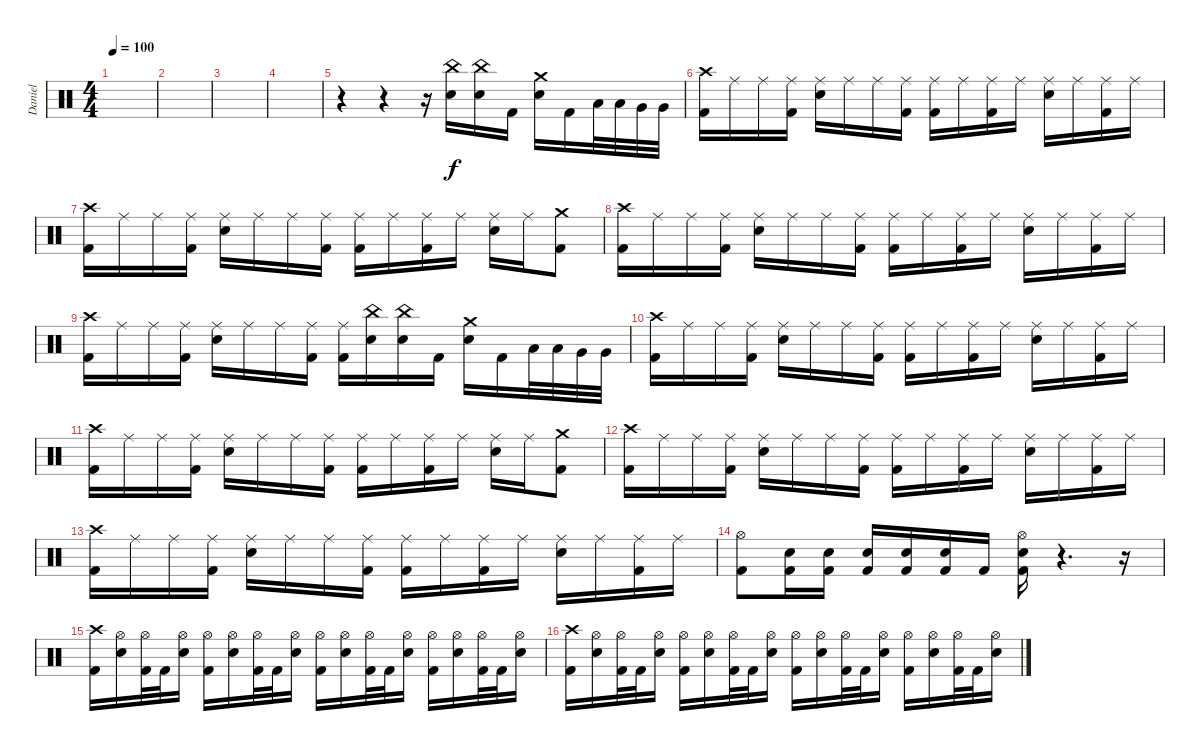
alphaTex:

\track ("Daniel" "Daniel") {instrument percussion}
\staff {score}
\articulation defaults
\ts (4 4)
\tempo 100
\clef neutral
\ks c
|
|
|
|
r.4 r.4 r.16 ("China (hit)" "Snare (hit) 2").16 ("China (hit)" "Snare (hit) 2").16 "Kick (hit) 2".16 ("Crash medium (hit)" "Snare (hit) 2").16 "Kick (hit) 2".16 "Low Tom (hit)".32 "Low Tom (hit)".32 "Very Low Tom (hit)".32 "Very Low Tom (hit)".32 |
("Crash high (hit)" "Kick (hit) 2").16 "Ride (middle)".16 "Ride (middle)".16 ("Ride (middle)" "Kick (hit) 2").16 ("Ride (middle)" "Snare (hit) 2").16 "Ride (middle)".16 "Ride (middle)".16 ("Ride (middle)" "Kick (hit) 2").16 ("Ride (middle)" "Kick (hit) 2").16 "Ride (middle)".16 ("Ride (middle)" "Kick (hit) 2").16 "Ride (middle)".16 ("Ride (middle)" "Snare (hit) 2").16 "Ride (middle)".16 ("Ride (middle)" "Kick (hit) 2").16 "Ride (middle)".16 |
("Crash high (hit)" "Kick (hit) 2").16 "Ride (middle)".16 "Ride (middle)".16 ("Ride (middle)" "Kick (hit) 2").16 ("Ride (middle)" "Snare (hit) 2").16 "Ride (middle)".16 "Ride (middle)".16 ("Ride (middle)" "Kick (hit) 2").16 ("Ride (middle)" "Kick (hit) 2").16 "Ride (middle)".16 ("Ride (middle)" "Kick (hit) 2").16 "Ride (middle)".16 ("Ride (middle)" "Snare (hit) 2").16 "Ride (middle)".16 ("Crash medium (hit)" "Kick (hit) 2").8 |
("Crash high (hit)" "Kick (hit) 2").16 "Ride (middle)".16 "Ride (middle)".16 ("Ride (middle)" "Kick (hit) 2").16 ("Ride (middle)" "Snare (hit) 2").16 "Ride (middle)".16 "Ride (middle)".16 ("Ride (middle)" "Kick (hit) 2").16 ("Ride (middle)" "Kick (hit) 2").16 "Ride (middle)".16 ("Ride (middle)" "Kick (hit) 2").16 "Ride (middle)".16 ("Ride (middle)" "Snare (hit) 2").16 "Ride (middle)".16 ("Ride (middle)" "Kick (hit) 2").16 "Ride (middle)".16 |
("Crash high (hit)" "Kick (hit) 2").16 "Ride (middle)".16 "Ride (middle)".16 ("Ride (middle)" "Kick (hit) 2").16 ("Ride (middle)" "Snare (hit) 2").16 "Ride (middle)".16 "Ride (middle)".16 ("Ride (middle)" "Kick (hit) 2").16 ("Ride (middle)" "Kick (hit) 2").16 ("China (hit)" "Snare (hit) 2").16 ("China (hit)" "Snare (hit) 2").16 "Kick (hit) 2".16 ("Crash medium (hit)" "Snare (hit) 2").16 "Kick (hit) 2".16 "Low Tom (hit)".32 "Low Tom (hit)".32 "Very Low Tom (hit)".32 "Very Low Tom (hit)".32 |
("Crash high (hit)" "Kick (hit) 2").16 "Ride (middle)".16 "Ride (middle)".16 ("Ride (middle)" "Kick (hit) 2").16 ("Ride (middle)" "Snare (hit) 2").16 "Ride (middle)".16 "Ride (middle)".16 ("Ride (middle)" "Kick (hit) 2").16 ("Ride (middle)" "Kick (hit) 2").16 "Ride (middle)".16 ("Ride (middle)" "Kick (hit) 2").16 "Ride (middle)".16 ("Ride (middle)" "Snare (hit) 2").16 "Ride (middle)".16 ("Ride (middle)" "Kick (hit) 2").16 "Ride (middle)".16 |
("Crash high (hit)" "Kick (hit) 2").16 "Ride (middle)".16 "Ride (middle)".16 ("Ride (middle)" "Kick (hit) 2").16 ("Ride (middle)" "Snare (hit) 2").16 "Ride (middle)".16 "Ride (middle)".16 ("Ride (middle)" "Kick (hit) 2").16 ("Ride (middle)" "Kick (hit) 2").16 "Ride (middle)".16 ("Ride (middle)" "Kick (hit) 2").16 "Ride (middle)".16 ("Ride (middle)" "Snare (hit) 2").16 "Ride (middle)".16 ("Crash medium (hit)" "Kick (hit) 2").8 |
("Crash high (hit)" "Kick (hit) 2").16 "Ride (middle)".16 "Ride (middle)".16 ("Ride (middle)" "Kick (hit) 2").16 ("Ride (middle)" "Snare (hit) 2").16 "Ride (middle)".16 "Ride (middle)".16 ("Ride (middle)" "Kick (hit) 2").16 ("Ride (middle)" "Kick (hit) 2").16 "Ride (middle)".16 ("Ride (middle)" "Kick (hit) 2").16 "Ride (middle)".16 ("Ride (middle)" "Snare (hit) 2").16 "Ride (middle)".16 ("Ride (middle)" "Kick (hit) 2").16 "Ride (middle)".16 |
("Crash high (hit)" "Kick (hit) 2").16 "Ride (middle)".16 "Ride (middle)".16 ("Ride (middle)" "Kick (hit) 2").16 ("Ride (middle)" "Snare (hit) 2").16 "Ride (middle)".16 "Ride (middle)".16 ("Ride (middle)" "Kick (hit) 2").16 ("Ride (middle)" "Kick (hit) 2").16 "Ride (middle)".16 ("Ride (middle)" "Kick (hit) 2").16 "Ride (middle)".16 ("Ride (middle)" "Snare (hit) 2").16 "Ride (middle)".16 ("Ride (middle)" "Kick (hit) 2").16 "Ride (middle)".16 |
("Hi-Hat (open)" "Kick (hit) 2").8 ("Kick (hit) 2" "Snare (hit) 2").16 ("Kick (hit) 2" "Snare (hit) 2").16 ("Kick (hit) 2" "Snare (hit) 2").16 ("Kick (hit) 2" "Snare (hit) 2").16 ("Kick (hit) 2" "Snare (hit) 2").16 "Kick (hit) 2".16 ("Hi-Hat (open)" "Kick (hit) 2" "Snare (hit) 2").16 r.4{d} r.16 |
("Crash high (hit)" "Kick (hit) 2").16 ("Hi-Hat (open)" "Snare (hit) 2").16 ("Hi-Hat (open)" "Kick (hit) 2").32 "Kick (hit) 2".32 ("Hi-Hat (open)" "Snare (hit) 2").16 ("Hi-Hat (open)" "Kick (hit) 2").16 ("Hi-Hat (open)" "Snare (hit) 2").16 ("Hi-Hat (open)" "Kick (hit) 2").32 "Kick (hit) 2".32 ("Hi-Hat (open)" "Snare (hit) 2").16 ("Hi-Hat (open)" "Kick (hit) 2").16 ("Hi-Hat (open)" "Snare (hit) 2").16 ("Hi-Hat (open)" "Kick (hit) 2").32 "Kick (hit) 2".32 ("Hi-Hat (open)" "Snare (hit) 2").16 ("Hi-Hat (open)" "Kick (hit) 2").16 ("Hi-Hat (open)" "Snare (hit) 2").16 ("Hi-Hat (open)" "Kick (hit) 2").32 "Kick (hit) 2".32 ("Hi-Hat (open)" "Snare (hit) 2").16 |
("Crash high (hit)" "Kick (hit) 2").16 ("Hi-Hat (open)" "Snare (hit) 2").16 ("Hi-Hat (open)" "Kick (hit) 2").32 "Kick (hit) 2".32 ("Hi-Hat (open)" "Snare (hit) 2").16 ("Hi-Hat (open)" "Kick (hit) 2").16 ("Hi-Hat (open)" "Snare (hit) 2").16 ("Hi-Hat (open)" "Kick (hit) 2").32 "Kick (hit) 2".32 ("Hi-Hat (open)" "Snare (hit) 2").16 ("Hi-Hat (open)" "Kick (hit) 2").16 ("Hi-Hat (open)" "Snare (hit) 2").16 ("Hi-Hat (open)" "Kick (hit) 2").32 "Kick (hit) 2".32 ("Hi-Hat (open)" "Snare (hit) 2").16 ("Hi-Hat (open)" "Kick (hit) 2").16 ("Hi-Hat (open)" "Snare (hit) 2").16 ("Hi-Hat (open)" "Kick (hit) 2").32 "Kick (hit) 2".32 ("Hi-Hat (open)" "Snare (hit) 2").16
